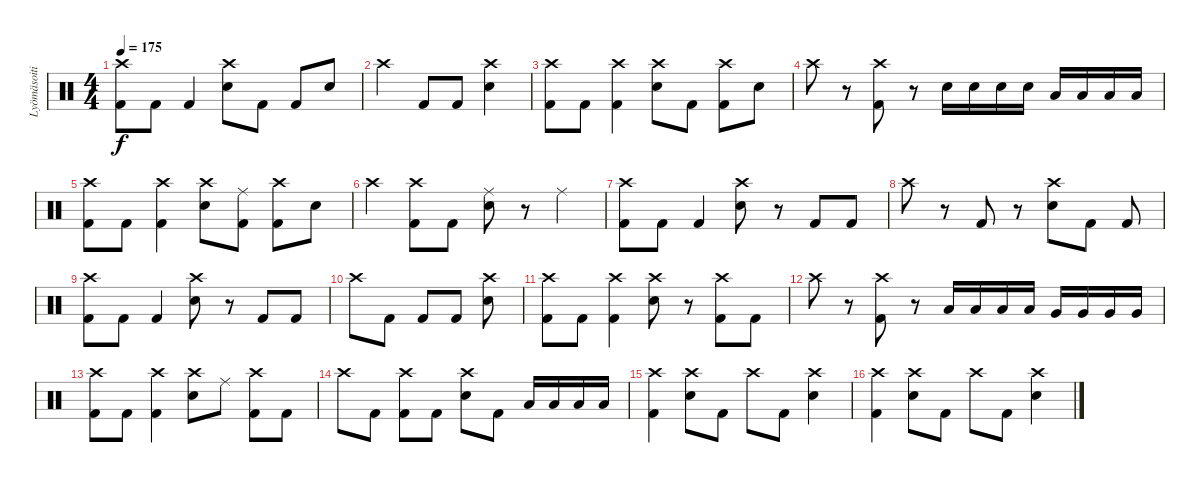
\track ("Lyömäsoitin" "Lyömäsoiti") {instrument percussion}
\staff {score}
\articulation defaults
\ts (4 4)
\tempo 175
\clef neutral
\ks c
("Kick (hit) 2" "Crash high (hit)").8{dy f} "Kick (hit) 2".8 "Kick (hit) 2".4 ("Electric Snare (hit)" "Crash high (hit)").8 "Kick (hit) 2".8 "Kick (hit) 2".8 "Electric Snare (hit)".8 |
"Crash high (hit)".4 "Kick (hit) 2".8 "Kick (hit) 2".8 ("Electric Snare (hit)" "Crash high (hit)").4 |
("Kick (hit) 2" "Crash high (hit)").8 "Kick (hit) 2".8 ("Kick (hit) 2" "Crash high (hit)").4 ("Electric Snare (hit)" "Crash high (hit)").8 "Kick (hit) 2".8 ("Kick (hit) 2" "Crash high (hit)").8 "Electric Snare (hit)".8 |
"Crash high (hit)".8 r.8 ("Kick (hit) 2" "Crash high (hit)").8 r.8 "Electric Snare (hit)".16 "Electric Snare (hit)".16 "Electric Snare (hit)".16 "Electric Snare (hit)".16 "Low Tom (hit)".16 "Low Tom (hit)".16 "Low Tom (hit)".16 "Low Tom (hit)".16 |
("Kick (hit) 2" "Crash high (hit)").8 "Kick (hit) 2".8 ("Kick (hit) 2" "Crash high (hit)").4 ("Electric Snare (hit)" "Crash high (hit)").8 ("Kick (hit) 2" "Ride (middle)").8 ("Kick (hit) 2" "Crash high (hit)").8 "Electric Snare (hit)".8 |
"Crash high (hit)".4 ("Kick (hit) 2" "Crash high (hit)").8 "Kick (hit) 2".8 ("Electric Snare (hit)" "Ride (middle)").8 r.8 "Ride (middle)".4 |
("Kick (hit) 2" "Crash high (hit)").8 "Kick (hit) 2".8 "Kick (hit) 2".4 ("Electric Snare (hit)" "Crash high (hit)").8 r.8 "Kick (hit) 2".8 "Kick (hit) 2".8 |
"Crash high (hit)".8 r.8 "Kick (hit) 2".8 r.8 ("Electric Snare (hit)" "Crash high (hit)").8 "Kick (hit) 2".8 "Kick (hit) 2".8 |
("Kick (hit) 2" "Crash high (hit)").8 "Kick (hit) 2".8 "Kick (hit) 2".4 ("Electric Snare (hit)" "Crash high (hit)").8 r.8 "Kick (hit) 2".8 "Kick (hit) 2".8 |
"Crash high (hit)".8 "Kick (hit) 2".8 "Kick (hit) 2".8 "Kick (hit) 2".8 ("Electric Snare (hit)" "Crash high (hit)").8 |
("Kick (hit) 2" "Crash high (hit)").8 "Kick (hit) 2".8 ("Kick (hit) 2" "Crash high (hit)").4 ("Electric Snare (hit)" "Crash high (hit)").8 r.8 ("Kick (hit) 2" "Crash high (hit)").8 "Kick (hit) 2".8 |
"Crash high (hit)".8 r.8 ("Kick (hit) 2" "Crash high (hit)").8 r.8 "Low Tom (hit)".16 "Low Tom (hit)".16 "Low Tom (hit)".16 "Low Tom (hit)".16 "Very Low Tom (hit)".16 "Very Low Tom (hit)".16 "Very Low Tom (hit)".16 "Very Low Tom (hit)".16 |
("Kick (hit) 2" "Crash high (hit)").8 "Kick (hit) 2".8 ("Kick (hit) 2" "Crash high (hit)").4 ("Electric Snare (hit)" "Crash high (hit)").8 "Ride (middle)".8 ("Kick (hit) 2" "Crash high (hit)").8 "Kick (hit) 2".8 |
"Crash high (hit)".8 "Kick (hit) 2".8 ("Kick (hit) 2" "Crash high (hit)").8 "Kick (hit) 2".8 ("Electric Snare (hit)" "Crash high (hit)").8 "Kick (hit) 2".8 "Low Tom (hit)".16 "Low Tom (hit)".16 "Low Tom (hit)".16 "Low Tom (hit)".16 |
("Kick (hit) 2" "Crash high (hit)").4 ("Electric Snare (hit)" "Crash high (hit)").8 "Kick (hit) 2".8 "Crash high (hit)".8 "Kick (hit) 2".8 ("Electric Snare (hit)" "Crash high (hit)").4 |
("Kick (hit) 2" "Crash high (hit)").4 ("Electric Snare (hit)" "Crash high (hit)").8 "Kick (hit) 2".8 "Crash high (hit)".8 "Kick (hit) 2".8 ("Electric Snare (hit)" "Crash high (hit)").4
